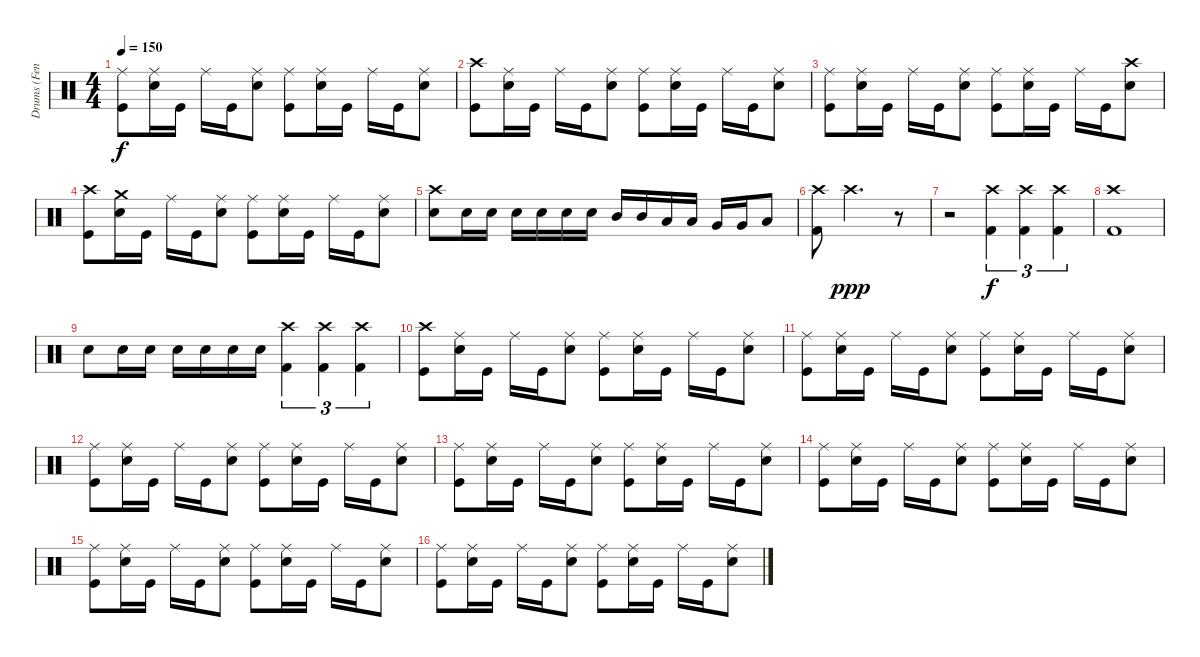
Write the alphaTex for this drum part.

\track ("Drums (Fenriz)" "Drums (Fen") {instrument percussion}
\staff {score}
\articulation defaults
\ts (4 4)
\tempo 150
\clef neutral
\ks c
("Ride (middle)" "Kick (hit)").8{dy f} ("Ride (middle)" "Electric Snare (hit)").16 "Kick (hit)".16 "Ride (middle)".16 "Kick (hit)".16 ("Ride (middle)" "Electric Snare (hit)").8 ("Ride (middle)" "Kick (hit)").8 ("Ride (middle)" "Electric Snare (hit)").16 "Kick (hit)".16 "Ride (middle)".16 "Kick (hit)".16 ("Ride (middle)" "Electric Snare (hit)").8 |
("Crash high (hit)" "Kick (hit)").8 ("Ride (middle)" "Electric Snare (hit)").16 "Kick (hit)".16 "Ride (middle)".16 "Kick (hit)".16 ("Ride (middle)" "Electric Snare (hit)").8 ("Ride (middle)" "Kick (hit)").8 ("Ride (middle)" "Electric Snare (hit)").16 "Kick (hit)".16 "Ride (middle)".16 "Kick (hit)".16 ("Ride (middle)" "Electric Snare (hit)").8 |
("Ride (middle)" "Kick (hit)").8 ("Ride (middle)" "Electric Snare (hit)").16 "Kick (hit)".16 "Ride (middle)".16 "Kick (hit)".16 ("Ride (middle)" "Electric Snare (hit)").8 ("Ride (middle)" "Kick (hit)").8 ("Ride (middle)" "Electric Snare (hit)").16 "Kick (hit)".16 "Ride (middle)".16 "Kick (hit)".16 ("Crash high (hit)" "Electric Snare (hit)").8 |
("Crash high (hit)" "Kick (hit)").8 ("Crash medium (hit)" "Electric Snare (hit)").16 "Kick (hit)".16 "Ride (middle)".16 "Kick (hit)".16 ("Ride (middle)" "Electric Snare (hit)").8 ("Ride (middle)" "Kick (hit)").8 ("Ride (middle)" "Electric Snare (hit)").16 "Kick (hit)".16 "Ride (middle)".16 "Kick (hit)".16 ("Ride (middle)" "Electric Snare (hit)").8 |
("Crash high (hit)" "Electric Snare (hit)").8 "Electric Snare (hit)".16 "Electric Snare (hit)".16 "Electric Snare (hit)".16 "Electric Snare (hit)".16 "Electric Snare (hit)".16 "Electric Snare (hit)".16 "Mid Tom (hit)".16 "Mid Tom (hit)".16 "Low Tom (hit)".16 "Low Tom (hit)".16 "Very Low Tom (hit)".16 "Very Low Tom (hit)".16 "Low Floor Tom (hit)".8 |
("Crash high (hit)" "Kick (hit) 2").8 "Crash high (hit)".2{d dy ppp} r.8 |
r.2 ("Crash high (hit)" "Kick (hit) 2").4{tu (3 2) dy f} ("Crash high (hit)" "Kick (hit) 2").4{tu (3 2)} ("Crash high (hit)" "Kick (hit) 2").4{tu (3 2)} |
("Crash high (hit)" "Kick (hit) 2").1 |
"Electric Snare (hit)".8 "Electric Snare (hit)".16 "Electric Snare (hit)".16 "Electric Snare (hit)".16 "Electric Snare (hit)".16 "Electric Snare (hit)".16 "Electric Snare (hit)".16 ("Crash high (hit)" "Kick (hit) 2").4{tu (3 2)} ("Crash high (hit)" "Kick (hit) 2").4{tu (3 2)} ("Crash high (hit)" "Kick (hit) 2").4{tu (3 2)} |
("Crash high (hit)" "Kick (hit)").8 ("Ride (middle)" "Electric Snare (hit)").16 "Kick (hit)".16 "Ride (middle)".16 "Kick (hit)".16 ("Ride (middle)" "Electric Snare (hit)").8 ("Ride (middle)" "Kick (hit)").8 ("Ride (middle)" "Electric Snare (hit)").16 "Kick (hit)".16 "Ride (middle)".16 "Kick (hit)".16 ("Ride (middle)" "Electric Snare (hit)").8 |
("Ride (middle)" "Kick (hit)").8 ("Ride (middle)" "Electric Snare (hit)").16 "Kick (hit)".16 "Ride (middle)".16 "Kick (hit)".16 ("Ride (middle)" "Electric Snare (hit)").8 ("Ride (middle)" "Kick (hit)").8 ("Ride (middle)" "Electric Snare (hit)").16 "Kick (hit)".16 "Ride (middle)".16 "Kick (hit)".16 ("Ride (middle)" "Electric Snare (hit)").8 |
("Ride (middle)" "Kick (hit)").8 ("Ride (middle)" "Electric Snare (hit)").16 "Kick (hit)".16 "Ride (middle)".16 "Kick (hit)".16 ("Ride (middle)" "Electric Snare (hit)").8 ("Ride (middle)" "Kick (hit)").8 ("Ride (middle)" "Electric Snare (hit)").16 "Kick (hit)".16 "Ride (middle)".16 "Kick (hit)".16 ("Ride (middle)" "Electric Snare (hit)").8 |
("Ride (middle)" "Kick (hit)").8 ("Ride (middle)" "Electric Snare (hit)").16 "Kick (hit)".16 "Ride (middle)".16 "Kick (hit)".16 ("Ride (middle)" "Electric Snare (hit)").8 ("Ride (middle)" "Kick (hit)").8 ("Ride (middle)" "Electric Snare (hit)").16 "Kick (hit)".16 "Ride (middle)".16 "Kick (hit)".16 ("Ride (middle)" "Electric Snare (hit)").8 |
("Ride (middle)" "Kick (hit)").8 ("Ride (middle)" "Electric Snare (hit)").16 "Kick (hit)".16 "Ride (middle)".16 "Kick (hit)".16 ("Ride (middle)" "Electric Snare (hit)").8 ("Ride (middle)" "Kick (hit)").8 ("Ride (middle)" "Electric Snare (hit)").16 "Kick (hit)".16 "Ride (middle)".16 "Kick (hit)".16 ("Ride (middle)" "Electric Snare (hit)").8 |
("Ride (middle)" "Kick (hit)").8 ("Ride (middle)" "Electric Snare (hit)").16 "Kick (hit)".16 "Ride (middle)".16 "Kick (hit)".16 ("Ride (middle)" "Electric Snare (hit)").8 ("Ride (middle)" "Kick (hit)").8 ("Ride (middle)" "Electric Snare (hit)").16 "Kick (hit)".16 "Ride (middle)".16 "Kick (hit)".16 ("Ride (middle)" "Electric Snare (hit)").8 |
("Ride (middle)" "Kick (hit)").8 ("Ride (middle)" "Electric Snare (hit)").16 "Kick (hit)".16 "Ride (middle)".16 "Kick (hit)".16 ("Ride (middle)" "Electric Snare (hit)").8 ("Ride (middle)" "Kick (hit)").8 ("Ride (middle)" "Electric Snare (hit)").16 "Kick (hit)".16 "Ride (middle)".16 "Kick (hit)".16 ("Ride (middle)" "Electric Snare (hit)").8
